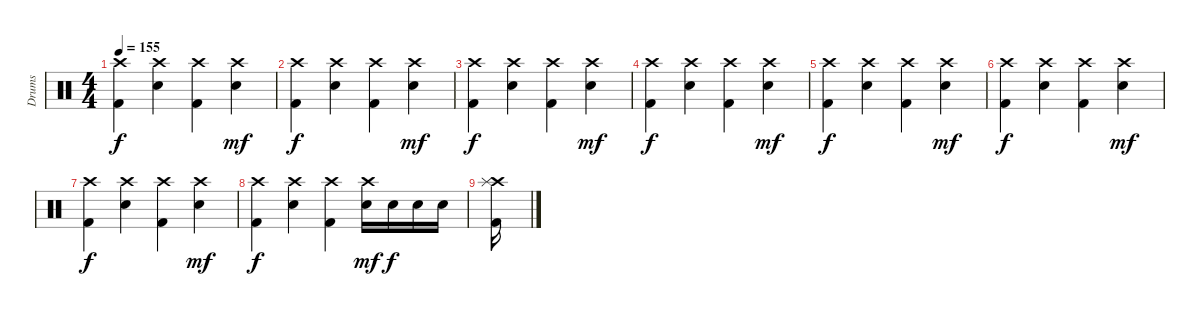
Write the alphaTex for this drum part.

\track ("Drums" "Drums") {instrument percussion}
\staff {score}
\articulation defaults
\ts (4 4)
\tempo 155
\clef neutral
\ks c
("Crash high (hit)" "Kick (hit) 2").4{dy f} ("Crash high (hit)" "Electric Snare (hit)").4 ("Crash high (hit)" "Kick (hit) 2").4 ("Crash high (hit)" "Electric Snare (hit)").4{dy mf} |
("Crash high (hit)" "Kick (hit) 2").4{dy f} ("Crash high (hit)" "Electric Snare (hit)").4 ("Crash high (hit)" "Kick (hit) 2").4 ("Crash high (hit)" "Electric Snare (hit)").4{dy mf} |
("Crash high (hit)" "Kick (hit) 2").4{dy f} ("Crash high (hit)" "Electric Snare (hit)").4 ("Crash high (hit)" "Kick (hit) 2").4 ("Crash high (hit)" "Electric Snare (hit)").4{dy mf} |
("Crash high (hit)" "Kick (hit) 2").4{dy f} ("Crash high (hit)" "Electric Snare (hit)").4 ("Crash high (hit)" "Kick (hit) 2").4 ("Crash high (hit)" "Electric Snare (hit)").4{dy mf} |
("Crash high (hit)" "Kick (hit) 2").4{dy f} ("Crash high (hit)" "Electric Snare (hit)").4 ("Crash high (hit)" "Kick (hit) 2").4 ("Crash high (hit)" "Electric Snare (hit)").4{dy mf} |
("Crash high (hit)" "Kick (hit) 2").4{dy f} ("Crash high (hit)" "Electric Snare (hit)").4 ("Crash high (hit)" "Kick (hit) 2").4 ("Crash high (hit)" "Electric Snare (hit)").4{dy mf} |
("Crash high (hit)" "Kick (hit) 2").4{dy f} ("Crash high (hit)" "Electric Snare (hit)").4 ("Crash high (hit)" "Kick (hit) 2").4 ("Crash high (hit)" "Electric Snare (hit)").4{dy mf} |
("Crash high (hit)" "Kick (hit) 2").4{dy f} ("Crash high (hit)" "Electric Snare (hit)").4 ("Crash high (hit)" "Kick (hit) 2").4 ("Crash high (hit)" "Electric Snare (hit)").16{dy mf} "Electric Snare (hit)".16{dy f} "Electric Snare (hit)".16 "Electric Snare (hit)".16 |
("Crash high (hit)" "Splash (hit)" "Kick (hit) 2").16
